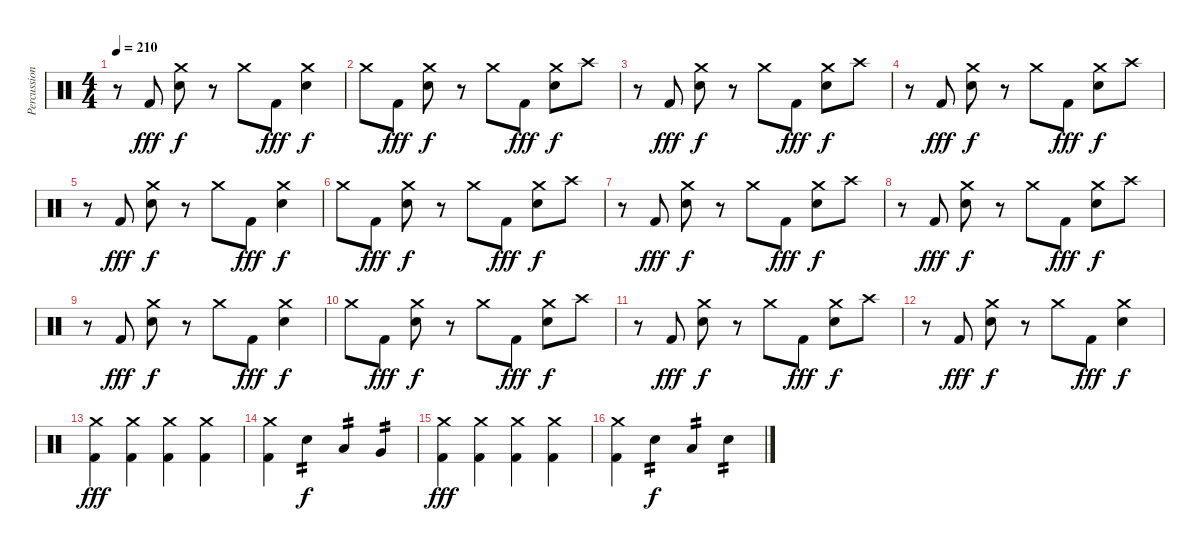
\track ("Percussion" "Percussion") {instrument percussion}
\staff {score}
\articulation defaults
\ts (4 4)
\tempo 210
\clef neutral
\ks c
r.8{dy f} "Kick (hit) 2".8{dy fff} ("Crash medium (hit)" "Electric Snare (hit)").8{dy f} r.8 "Crash medium (hit)".8 "Kick (hit) 2".8{dy fff} ("Crash medium (hit)" "Electric Snare (hit)").4{dy f} |
"Crash medium (hit)".8 "Kick (hit) 2".8{dy fff} ("Crash medium (hit)" "Electric Snare (hit)").8{dy f} r.8 "Crash medium (hit)".8 "Kick (hit) 2".8{dy fff} ("Crash medium (hit)" "Electric Snare (hit)").8{dy f} "Crash high (hit)".8 |
r.8 "Kick (hit) 2".8{dy fff} ("Crash medium (hit)" "Electric Snare (hit)").8{dy f} r.8 "Crash medium (hit)".8 "Kick (hit) 2".8{dy fff} ("Crash medium (hit)" "Electric Snare (hit)").8{dy f} "Crash high (hit)".8 |
r.8 "Kick (hit) 2".8{dy fff} ("Crash medium (hit)" "Electric Snare (hit)").8{dy f} r.8 "Crash medium (hit)".8 "Kick (hit) 2".8{dy fff} ("Crash medium (hit)" "Electric Snare (hit)").8{dy f} "Crash high (hit)".8 |
r.8 "Kick (hit) 2".8{dy fff} ("Crash medium (hit)" "Electric Snare (hit)").8{dy f} r.8 "Crash medium (hit)".8 "Kick (hit) 2".8{dy fff} ("Crash medium (hit)" "Electric Snare (hit)").4{dy f} |
"Crash medium (hit)".8 "Kick (hit) 2".8{dy fff} ("Crash medium (hit)" "Electric Snare (hit)").8{dy f} r.8 "Crash medium (hit)".8 "Kick (hit) 2".8{dy fff} ("Crash medium (hit)" "Electric Snare (hit)").8{dy f} "Crash high (hit)".8 |
r.8 "Kick (hit) 2".8{dy fff} ("Crash medium (hit)" "Electric Snare (hit)").8{dy f} r.8 "Crash medium (hit)".8 "Kick (hit) 2".8{dy fff} ("Crash medium (hit)" "Electric Snare (hit)").8{dy f} "Crash high (hit)".8 |
r.8 "Kick (hit) 2".8{dy fff} ("Crash medium (hit)" "Electric Snare (hit)").8{dy f} r.8 "Crash medium (hit)".8 "Kick (hit) 2".8{dy fff} ("Crash medium (hit)" "Electric Snare (hit)").8{dy f} "Crash high (hit)".8 |
r.8 "Kick (hit) 2".8{dy fff} ("Crash medium (hit)" "Electric Snare (hit)").8{dy f} r.8 "Crash medium (hit)".8 "Kick (hit) 2".8{dy fff} ("Crash medium (hit)" "Electric Snare (hit)").4{dy f} |
"Crash medium (hit)".8 "Kick (hit) 2".8{dy fff} ("Crash medium (hit)" "Electric Snare (hit)").8{dy f} r.8 "Crash medium (hit)".8 "Kick (hit) 2".8{dy fff} ("Crash medium (hit)" "Electric Snare (hit)").8{dy f} "Crash high (hit)".8 |
r.8 "Kick (hit) 2".8{dy fff} ("Crash medium (hit)" "Electric Snare (hit)").8{dy f} r.8 "Crash medium (hit)".8 "Kick (hit) 2".8{dy fff} ("Crash medium (hit)" "Electric Snare (hit)").8{dy f} "Crash high (hit)".8 |
r.8 "Kick (hit) 2".8{dy fff} ("Crash medium (hit)" "Electric Snare (hit)").8{dy f} r.8 "Crash medium (hit)".8 "Kick (hit) 2".8{dy fff} ("Crash medium (hit)" "Electric Snare (hit)").4{dy f} |
("Crash medium (hit)" "Kick (hit) 2").4{dy fff} ("Crash medium (hit)" "Kick (hit) 2").4 ("Crash medium (hit)" "Kick (hit) 2").4 ("Crash medium (hit)" "Kick (hit) 2").4 |
("Crash medium (hit)" "Kick (hit) 2").4 "Electric Snare (hit)".4{tp 2 dy f} "Low Tom (hit)".4{tp 2} "Very Low Tom (hit)".4{tp 2} |
("Crash medium (hit)" "Kick (hit) 2").4{dy fff} ("Crash medium (hit)" "Kick (hit) 2").4 ("Crash medium (hit)" "Kick (hit) 2").4 ("Crash medium (hit)" "Kick (hit) 2").4 |
("Crash medium (hit)" "Kick (hit) 2").4 "Electric Snare (hit)".4{tp 2 dy f} "Low Tom (hit)".4{tp 2} "Electric Snare (hit)".4{tp 2}
